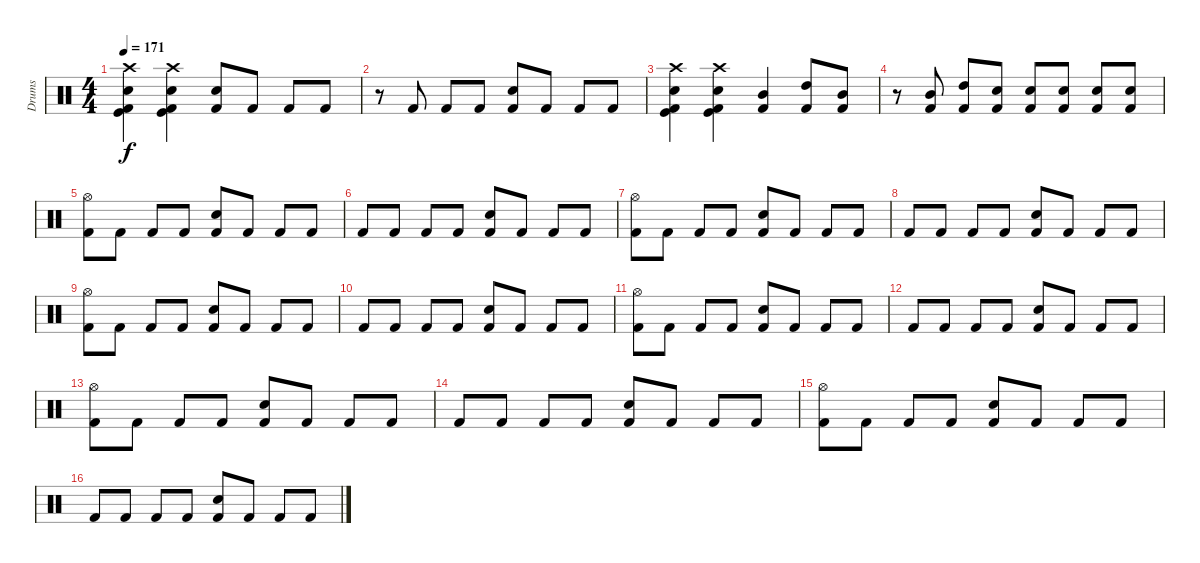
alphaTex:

\track ("Drums" "Drums") {instrument percussion}
\staff {score}
\articulation defaults
\ts (4 4)
\tempo 171
\clef neutral
\ks c
("Crash high (hit)" "Kick (hit) 2" "Snare (hit) 2" "Kick (hit)").4{dy f} ("Crash high (hit)" "Kick (hit) 2" "Snare (hit) 2" "Kick (hit)").4 ("Snare (hit) 2" "Kick (hit) 2").8 "Kick (hit) 2".8 "Kick (hit) 2".8 "Kick (hit) 2".8 |
r.8 "Kick (hit) 2".8 "Kick (hit) 2".8 "Kick (hit) 2".8 ("Snare (hit) 2" "Kick (hit) 2").8 "Kick (hit) 2".8 "Kick (hit) 2".8 "Kick (hit) 2".8 |
("Crash high (hit)" "Kick (hit) 2" "Snare (hit) 2" "Kick (hit)").4 ("Crash high (hit)" "Kick (hit) 2" "Snare (hit) 2" "Kick (hit)").4 ("Mid Tom (hit)" "Kick (hit) 2").4 ("High Tom (hit)" "Kick (hit) 2").8 ("Mid Tom (hit)" "Kick (hit) 2").8 |
r.8 ("Mid Tom (hit)" "Kick (hit) 2").8 ("High Tom (hit)" "Kick (hit) 2").8 ("Snare (hit) 2" "Kick (hit) 2").8 ("Snare (hit) 2" "Kick (hit) 2").8 ("Snare (hit) 2" "Kick (hit) 2").8 ("Snare (hit) 2" "Kick (hit) 2").8 ("Snare (hit) 2" "Kick (hit) 2").8 |
("Hi-Hat (open)" "Kick (hit) 2").8 "Kick (hit) 2".8 "Kick (hit) 2".8 "Kick (hit) 2".8 ("Snare (hit) 2" "Kick (hit) 2").8 "Kick (hit) 2".8 "Kick (hit) 2".8 "Kick (hit) 2".8 |
"Kick (hit) 2".8 "Kick (hit) 2".8 "Kick (hit) 2".8 "Kick (hit) 2".8 ("Snare (hit) 2" "Kick (hit) 2").8 "Kick (hit) 2".8 "Kick (hit) 2".8 "Kick (hit) 2".8 |
("Hi-Hat (open)" "Kick (hit) 2").8 "Kick (hit) 2".8 "Kick (hit) 2".8 "Kick (hit) 2".8 ("Snare (hit) 2" "Kick (hit) 2").8 "Kick (hit) 2".8 "Kick (hit) 2".8 "Kick (hit) 2".8 |
"Kick (hit) 2".8 "Kick (hit) 2".8 "Kick (hit) 2".8 "Kick (hit) 2".8 ("Snare (hit) 2" "Kick (hit) 2").8 "Kick (hit) 2".8 "Kick (hit) 2".8 "Kick (hit) 2".8 |
("Hi-Hat (open)" "Kick (hit) 2").8 "Kick (hit) 2".8 "Kick (hit) 2".8 "Kick (hit) 2".8 ("Snare (hit) 2" "Kick (hit) 2").8 "Kick (hit) 2".8 "Kick (hit) 2".8 "Kick (hit) 2".8 |
"Kick (hit) 2".8 "Kick (hit) 2".8 "Kick (hit) 2".8 "Kick (hit) 2".8 ("Snare (hit) 2" "Kick (hit) 2").8 "Kick (hit) 2".8 "Kick (hit) 2".8 "Kick (hit) 2".8 |
("Hi-Hat (open)" "Kick (hit) 2").8 "Kick (hit) 2".8 "Kick (hit) 2".8 "Kick (hit) 2".8 ("Snare (hit) 2" "Kick (hit) 2").8 "Kick (hit) 2".8 "Kick (hit) 2".8 "Kick (hit) 2".8 |
"Kick (hit) 2".8 "Kick (hit) 2".8 "Kick (hit) 2".8 "Kick (hit) 2".8 ("Snare (hit) 2" "Kick (hit) 2").8 "Kick (hit) 2".8 "Kick (hit) 2".8 "Kick (hit) 2".8 |
("Hi-Hat (open)" "Kick (hit) 2").8 "Kick (hit) 2".8 "Kick (hit) 2".8 "Kick (hit) 2".8 ("Snare (hit) 2" "Kick (hit) 2").8 "Kick (hit) 2".8 "Kick (hit) 2".8 "Kick (hit) 2".8 |
"Kick (hit) 2".8 "Kick (hit) 2".8 "Kick (hit) 2".8 "Kick (hit) 2".8 ("Snare (hit) 2" "Kick (hit) 2").8 "Kick (hit) 2".8 "Kick (hit) 2".8 "Kick (hit) 2".8 |
("Hi-Hat (open)" "Kick (hit) 2").8 "Kick (hit) 2".8 "Kick (hit) 2".8 "Kick (hit) 2".8 ("Snare (hit) 2" "Kick (hit) 2").8 "Kick (hit) 2".8 "Kick (hit) 2".8 "Kick (hit) 2".8 |
"Kick (hit) 2".8 "Kick (hit) 2".8 "Kick (hit) 2".8 "Kick (hit) 2".8 ("Snare (hit) 2" "Kick (hit) 2").8 "Kick (hit) 2".8 "Kick (hit) 2".8 "Kick (hit) 2".8
